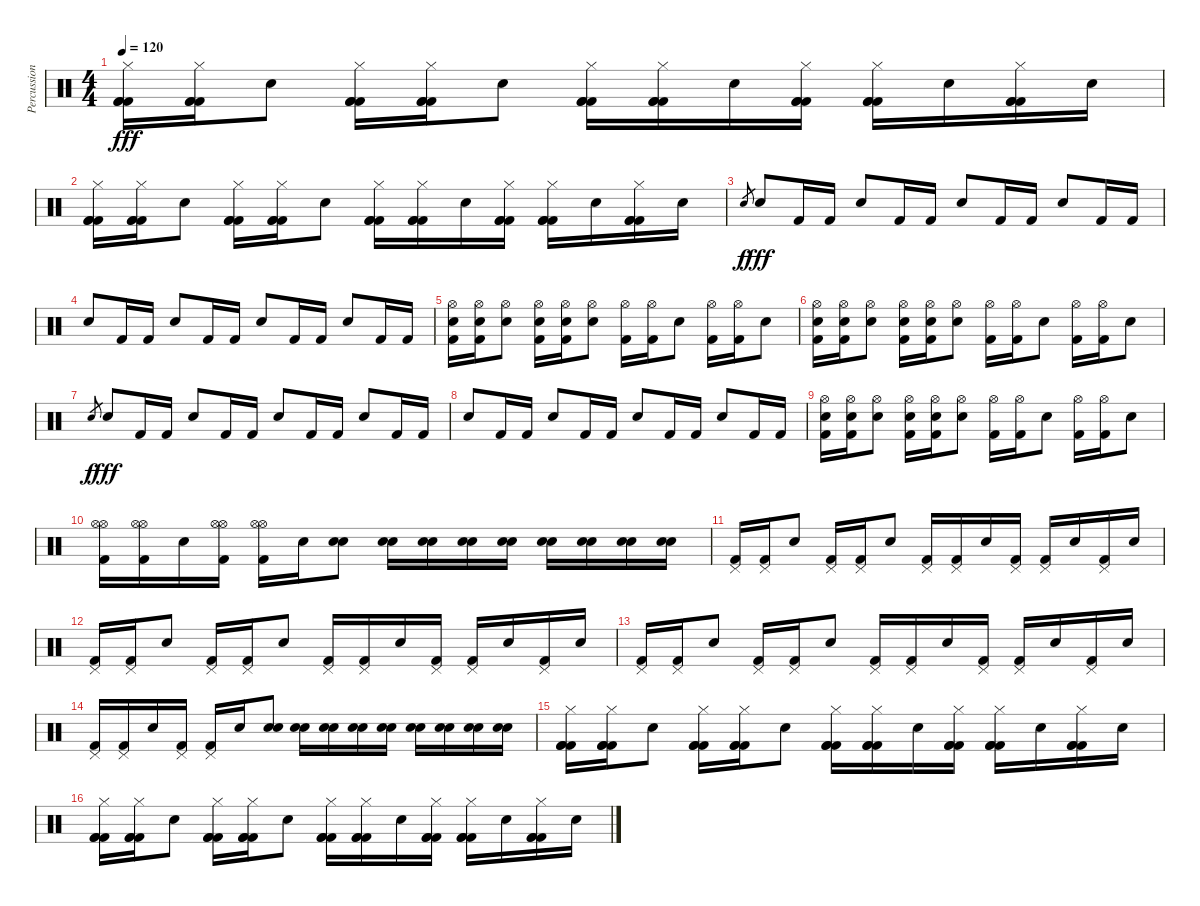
\track ("Percussion" "Percussion") {instrument percussion}
\staff {score}
\articulation defaults
\ts (4 4)
\tempo 120
\clef neutral
\ks c
("Kick (hit) 2" "Kick (hit) 2" "Hi-Hat (closed)" "Kick (hit) 2").16{dy fff} ("Kick (hit) 2" "Kick (hit) 2" "Hi-Hat (closed)" "Kick (hit) 2").16 "Snare (hit) 2".8 ("Kick (hit) 2" "Kick (hit) 2" "Hi-Hat (closed)" "Kick (hit) 2").16 ("Kick (hit) 2" "Kick (hit) 2" "Hi-Hat (closed)" "Kick (hit) 2").16 "Snare (hit) 2".8 ("Kick (hit) 2" "Kick (hit) 2" "Hi-Hat (closed)" "Kick (hit) 2").16 ("Kick (hit) 2" "Kick (hit) 2" "Hi-Hat (closed)" "Kick (hit) 2").16 "Snare (hit) 2".16 ("Kick (hit) 2" "Kick (hit) 2" "Hi-Hat (closed)" "Kick (hit) 2").16 ("Kick (hit) 2" "Kick (hit) 2" "Hi-Hat (closed)" "Kick (hit) 2").16 "Snare (hit) 2".16 ("Kick (hit) 2" "Kick (hit) 2" "Hi-Hat (closed)" "Kick (hit) 2").16 "Snare (hit) 2".16 |
("Kick (hit) 2" "Kick (hit) 2" "Hi-Hat (closed)" "Kick (hit) 2").16 ("Kick (hit) 2" "Kick (hit) 2" "Hi-Hat (closed)" "Kick (hit) 2").16 "Snare (hit) 2".8 ("Kick (hit) 2" "Kick (hit) 2" "Hi-Hat (closed)" "Kick (hit) 2").16 ("Kick (hit) 2" "Kick (hit) 2" "Hi-Hat (closed)" "Kick (hit) 2").16 "Snare (hit) 2".8 ("Kick (hit) 2" "Kick (hit) 2" "Hi-Hat (closed)" "Kick (hit) 2").16 ("Kick (hit) 2" "Kick (hit) 2" "Hi-Hat (closed)" "Kick (hit) 2").16 "Snare (hit) 2".16 ("Kick (hit) 2" "Kick (hit) 2" "Hi-Hat (closed)" "Kick (hit) 2").16 ("Kick (hit) 2" "Kick (hit) 2" "Hi-Hat (closed)" "Kick (hit) 2").16 "Snare (hit) 2".16 ("Kick (hit) 2" "Kick (hit) 2" "Hi-Hat (closed)" "Kick (hit) 2").16 "Snare (hit) 2".16 |
"Snare (hit) 2".8{gr dy f} "Snare (hit) 2".8{dy fff} "Kick (hit) 2".16 "Kick (hit) 2".16 "Snare (hit) 2".8 "Kick (hit) 2".16 "Kick (hit) 2".16 "Snare (hit) 2".8 "Kick (hit) 2".16 "Kick (hit) 2".16 "Snare (hit) 2".8 "Kick (hit) 2".16 "Kick (hit) 2".16 |
"Snare (hit) 2".8 "Kick (hit) 2".16 "Kick (hit) 2".16 "Snare (hit) 2".8 "Kick (hit) 2".16 "Kick (hit) 2".16 "Snare (hit) 2".8 "Kick (hit) 2".16 "Kick (hit) 2".16 "Snare (hit) 2".8 "Kick (hit) 2".16 "Kick (hit) 2".16 |
("Hi-Hat (open)" "Snare (hit) 2" "Kick (hit) 2").16 ("Hi-Hat (open)" "Snare (hit) 2" "Kick (hit) 2").16 ("Hi-Hat (open)" "Snare (hit) 2").8 ("Hi-Hat (open)" "Snare (hit) 2" "Kick (hit) 2").16 ("Hi-Hat (open)" "Snare (hit) 2" "Kick (hit) 2").16 ("Hi-Hat (open)" "Snare (hit) 2").8 ("Hi-Hat (open)" "Kick (hit) 2").16 ("Hi-Hat (open)" "Kick (hit) 2").16 "Snare (hit) 2".8 ("Hi-Hat (open)" "Kick (hit) 2").16 ("Hi-Hat (open)" "Kick (hit) 2").16 "Snare (hit) 2".8 |
("Hi-Hat (open)" "Snare (hit) 2" "Kick (hit) 2").16 ("Hi-Hat (open)" "Snare (hit) 2" "Kick (hit) 2").16 ("Hi-Hat (open)" "Snare (hit) 2").8 ("Hi-Hat (open)" "Snare (hit) 2" "Kick (hit) 2").16 ("Hi-Hat (open)" "Snare (hit) 2" "Kick (hit) 2").16 ("Hi-Hat (open)" "Snare (hit) 2").8 ("Hi-Hat (open)" "Kick (hit) 2").16 ("Hi-Hat (open)" "Kick (hit) 2").16 "Snare (hit) 2".8 ("Hi-Hat (open)" "Kick (hit) 2").16 ("Hi-Hat (open)" "Kick (hit) 2").16 "Snare (hit) 2".8 |
"Snare (hit) 2".8{gr dy f} "Snare (hit) 2".8{dy fff} "Kick (hit) 2".16 "Kick (hit) 2".16 "Snare (hit) 2".8 "Kick (hit) 2".16 "Kick (hit) 2".16 "Snare (hit) 2".8 "Kick (hit) 2".16 "Kick (hit) 2".16 "Snare (hit) 2".8 "Kick (hit) 2".16 "Kick (hit) 2".16 |
"Snare (hit) 2".8 "Kick (hit) 2".16 "Kick (hit) 2".16 "Snare (hit) 2".8 "Kick (hit) 2".16 "Kick (hit) 2".16 "Snare (hit) 2".8 "Kick (hit) 2".16 "Kick (hit) 2".16 "Snare (hit) 2".8 "Kick (hit) 2".16 "Kick (hit) 2".16 |
("Hi-Hat (open)" "Snare (hit) 2" "Kick (hit) 2").16 ("Hi-Hat (open)" "Snare (hit) 2" "Kick (hit) 2").16 ("Hi-Hat (open)" "Snare (hit) 2").8 ("Hi-Hat (open)" "Snare (hit) 2" "Kick (hit) 2").16 ("Hi-Hat (open)" "Snare (hit) 2" "Kick (hit) 2").16 ("Hi-Hat (open)" "Snare (hit) 2").8 ("Hi-Hat (open)" "Kick (hit) 2").16 ("Hi-Hat (open)" "Kick (hit) 2").16 "Snare (hit) 2".8 ("Hi-Hat (open)" "Kick (hit) 2").16 ("Hi-Hat (open)" "Kick (hit) 2").16 "Snare (hit) 2".8 |
("Hi-Hat (open)" "Hi-Hat (open)" "Kick (hit) 2").16 ("Hi-Hat (open)" "Hi-Hat (open)" "Kick (hit) 2").16 "Snare (hit) 2".16 ("Hi-Hat (open)" "Hi-Hat (open)" "Kick (hit) 2").16 ("Hi-Hat (open)" "Hi-Hat (open)" "Kick (hit) 2").16 "Snare (hit) 2".16 ("Snare (hit) 2" "Snare (hit) 2").8 ("Snare (hit) 2" "Snare (hit) 2").16 ("Snare (hit) 2" "Snare (hit) 2").16 ("Snare (hit) 2" "Snare (hit) 2").16 ("Snare (hit) 2" "Snare (hit) 2").16 ("Snare (hit) 2" "Snare (hit) 2").16 ("Snare (hit) 2" "Snare (hit) 2").16 ("Snare (hit) 2" "Snare (hit) 2").16 ("Snare (hit) 2" "Snare (hit) 2").16 |
("Pedal Hi-Hat (hit)" "Kick (hit) 2").16 ("Pedal Hi-Hat (hit)" "Kick (hit) 2").16 "Snare (hit) 2".8 ("Pedal Hi-Hat (hit)" "Kick (hit) 2").16 ("Pedal Hi-Hat (hit)" "Kick (hit) 2").16 "Snare (hit) 2".8 ("Pedal Hi-Hat (hit)" "Kick (hit) 2").16 ("Pedal Hi-Hat (hit)" "Kick (hit) 2").16 "Snare (hit) 2".16 ("Pedal Hi-Hat (hit)" "Kick (hit) 2").16 ("Pedal Hi-Hat (hit)" "Kick (hit) 2").16 "Snare (hit) 2".16 ("Pedal Hi-Hat (hit)" "Kick (hit) 2").16 "Snare (hit) 2".16 |
("Pedal Hi-Hat (hit)" "Kick (hit) 2").16 ("Pedal Hi-Hat (hit)" "Kick (hit) 2").16 "Snare (hit) 2".8 ("Pedal Hi-Hat (hit)" "Kick (hit) 2").16 ("Pedal Hi-Hat (hit)" "Kick (hit) 2").16 "Snare (hit) 2".8 ("Pedal Hi-Hat (hit)" "Kick (hit) 2").16 ("Pedal Hi-Hat (hit)" "Kick (hit) 2").16 "Snare (hit) 2".16 ("Pedal Hi-Hat (hit)" "Kick (hit) 2").16 ("Pedal Hi-Hat (hit)" "Kick (hit) 2").16 "Snare (hit) 2".16 ("Pedal Hi-Hat (hit)" "Kick (hit) 2").16 "Snare (hit) 2".16 |
("Pedal Hi-Hat (hit)" "Kick (hit) 2").16 ("Pedal Hi-Hat (hit)" "Kick (hit) 2").16 "Snare (hit) 2".8 ("Pedal Hi-Hat (hit)" "Kick (hit) 2").16 ("Pedal Hi-Hat (hit)" "Kick (hit) 2").16 "Snare (hit) 2".8 ("Pedal Hi-Hat (hit)" "Kick (hit) 2").16 ("Pedal Hi-Hat (hit)" "Kick (hit) 2").16 "Snare (hit) 2".16 ("Pedal Hi-Hat (hit)" "Kick (hit) 2").16 ("Pedal Hi-Hat (hit)" "Kick (hit) 2").16 "Snare (hit) 2".16 ("Pedal Hi-Hat (hit)" "Kick (hit) 2").16 "Snare (hit) 2".16 |
("Pedal Hi-Hat (hit)" "Kick (hit) 2").16 ("Pedal Hi-Hat (hit)" "Kick (hit) 2").16 "Snare (hit) 2".16 ("Pedal Hi-Hat (hit)" "Kick (hit) 2").16 ("Pedal Hi-Hat (hit)" "Kick (hit) 2").16 "Snare (hit) 2".16 ("Snare (hit) 2" "Snare (hit) 2").8 ("Snare (hit) 2" "Snare (hit) 2").16 ("Snare (hit) 2" "Snare (hit) 2").16 ("Snare (hit) 2" "Snare (hit) 2").16 ("Snare (hit) 2" "Snare (hit) 2").16 ("Snare (hit) 2" "Snare (hit) 2").16 ("Snare (hit) 2" "Snare (hit) 2").16 ("Snare (hit) 2" "Snare (hit) 2").16 ("Snare (hit) 2" "Snare (hit) 2").16 |
("Kick (hit) 2" "Kick (hit) 2" "Hi-Hat (closed)" "Kick (hit) 2").16 ("Kick (hit) 2" "Kick (hit) 2" "Hi-Hat (closed)" "Kick (hit) 2").16 "Snare (hit) 2".8 ("Kick (hit) 2" "Kick (hit) 2" "Hi-Hat (closed)" "Kick (hit) 2").16 ("Kick (hit) 2" "Kick (hit) 2" "Hi-Hat (closed)" "Kick (hit) 2").16 "Snare (hit) 2".8 ("Kick (hit) 2" "Kick (hit) 2" "Hi-Hat (closed)" "Kick (hit) 2").16 ("Kick (hit) 2" "Kick (hit) 2" "Hi-Hat (closed)" "Kick (hit) 2").16 "Snare (hit) 2".16 ("Kick (hit) 2" "Kick (hit) 2" "Hi-Hat (closed)" "Kick (hit) 2").16 ("Kick (hit) 2" "Kick (hit) 2" "Hi-Hat (closed)" "Kick (hit) 2").16 "Snare (hit) 2".16 ("Kick (hit) 2" "Kick (hit) 2" "Hi-Hat (closed)" "Kick (hit) 2").16 "Snare (hit) 2".16 |
("Kick (hit) 2" "Kick (hit) 2" "Hi-Hat (closed)" "Kick (hit) 2").16 ("Kick (hit) 2" "Kick (hit) 2" "Hi-Hat (closed)" "Kick (hit) 2").16 "Snare (hit) 2".8 ("Kick (hit) 2" "Kick (hit) 2" "Hi-Hat (closed)" "Kick (hit) 2").16 ("Kick (hit) 2" "Kick (hit) 2" "Hi-Hat (closed)" "Kick (hit) 2").16 "Snare (hit) 2".8 ("Kick (hit) 2" "Kick (hit) 2" "Hi-Hat (closed)" "Kick (hit) 2").16 ("Kick (hit) 2" "Kick (hit) 2" "Hi-Hat (closed)" "Kick (hit) 2").16 "Snare (hit) 2".16 ("Kick (hit) 2" "Kick (hit) 2" "Hi-Hat (closed)" "Kick (hit) 2").16 ("Kick (hit) 2" "Kick (hit) 2" "Hi-Hat (closed)" "Kick (hit) 2").16 "Snare (hit) 2".16 ("Kick (hit) 2" "Kick (hit) 2" "Hi-Hat (closed)" "Kick (hit) 2").16 "Snare (hit) 2".16
